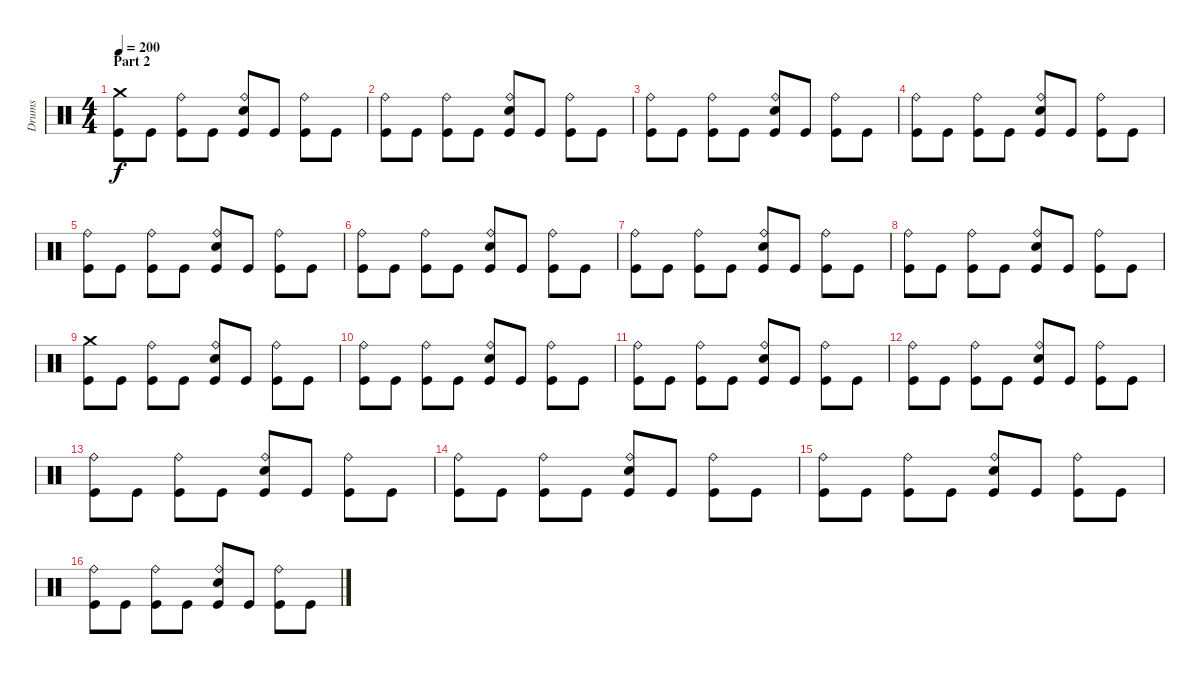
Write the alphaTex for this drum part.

\track ("Drums" "Drums") {instrument percussion}
\staff {score}
\articulation defaults
\ts (4 4)
\section ("" "Part 2")
\tempo 200
\clef neutral
\ks c
("Crash medium (hit)" "Kick (hit)").8{dy f} "Kick (hit)".8 ("Ride (bell)" "Kick (hit)").8 "Kick (hit)".8 ("Ride (bell)" "Electric Snare (hit)" "Kick (hit)").8 "Kick (hit)".8 ("Ride (bell)" "Kick (hit)").8 "Kick (hit)".8 |
("Ride (bell)" "Kick (hit)").8 "Kick (hit)".8 ("Ride (bell)" "Kick (hit)").8 "Kick (hit)".8 ("Ride (bell)" "Electric Snare (hit)" "Kick (hit)").8 "Kick (hit)".8 ("Ride (bell)" "Kick (hit)").8 "Kick (hit)".8 |
("Ride (bell)" "Kick (hit)").8 "Kick (hit)".8 ("Ride (bell)" "Kick (hit)").8 "Kick (hit)".8 ("Ride (bell)" "Electric Snare (hit)" "Kick (hit)").8 "Kick (hit)".8 ("Ride (bell)" "Kick (hit)").8 "Kick (hit)".8 |
("Ride (bell)" "Kick (hit)").8 "Kick (hit)".8 ("Ride (bell)" "Kick (hit)").8 "Kick (hit)".8 ("Ride (bell)" "Electric Snare (hit)" "Kick (hit)").8 "Kick (hit)".8 ("Ride (bell)" "Kick (hit)").8 "Kick (hit)".8 |
("Ride (bell)" "Kick (hit)").8 "Kick (hit)".8 ("Ride (bell)" "Kick (hit)").8 "Kick (hit)".8 ("Ride (bell)" "Electric Snare (hit)" "Kick (hit)").8 "Kick (hit)".8 ("Ride (bell)" "Kick (hit)").8 "Kick (hit)".8 |
("Ride (bell)" "Kick (hit)").8 "Kick (hit)".8 ("Ride (bell)" "Kick (hit)").8 "Kick (hit)".8 ("Ride (bell)" "Electric Snare (hit)" "Kick (hit)").8 "Kick (hit)".8 ("Ride (bell)" "Kick (hit)").8 "Kick (hit)".8 |
("Ride (bell)" "Kick (hit)").8 "Kick (hit)".8 ("Ride (bell)" "Kick (hit)").8 "Kick (hit)".8 ("Ride (bell)" "Electric Snare (hit)" "Kick (hit)").8 "Kick (hit)".8 ("Ride (bell)" "Kick (hit)").8 "Kick (hit)".8 |
("Ride (bell)" "Kick (hit)").8 "Kick (hit)".8 ("Ride (bell)" "Kick (hit)").8 "Kick (hit)".8 ("Ride (bell)" "Electric Snare (hit)" "Kick (hit)").8 "Kick (hit)".8 ("Ride (bell)" "Kick (hit)").8 "Kick (hit)".8 |
("Crash medium (hit)" "Kick (hit)").8 "Kick (hit)".8 ("Ride (bell)" "Kick (hit)").8 "Kick (hit)".8 ("Ride (bell)" "Electric Snare (hit)" "Kick (hit)").8 "Kick (hit)".8 ("Ride (bell)" "Kick (hit)").8 "Kick (hit)".8 |
("Ride (bell)" "Kick (hit)").8 "Kick (hit)".8 ("Ride (bell)" "Kick (hit)").8 "Kick (hit)".8 ("Ride (bell)" "Electric Snare (hit)" "Kick (hit)").8 "Kick (hit)".8 ("Ride (bell)" "Kick (hit)").8 "Kick (hit)".8 |
("Ride (bell)" "Kick (hit)").8 "Kick (hit)".8 ("Ride (bell)" "Kick (hit)").8 "Kick (hit)".8 ("Ride (bell)" "Electric Snare (hit)" "Kick (hit)").8 "Kick (hit)".8 ("Ride (bell)" "Kick (hit)").8 "Kick (hit)".8 |
("Ride (bell)" "Kick (hit)").8 "Kick (hit)".8 ("Ride (bell)" "Kick (hit)").8 "Kick (hit)".8 ("Ride (bell)" "Electric Snare (hit)" "Kick (hit)").8 "Kick (hit)".8 ("Ride (bell)" "Kick (hit)").8 "Kick (hit)".8 |
("Ride (bell)" "Kick (hit)").8 "Kick (hit)".8 ("Ride (bell)" "Kick (hit)").8 "Kick (hit)".8 ("Ride (bell)" "Electric Snare (hit)" "Kick (hit)").8 "Kick (hit)".8 ("Ride (bell)" "Kick (hit)").8 "Kick (hit)".8 |
("Ride (bell)" "Kick (hit)").8 "Kick (hit)".8 ("Ride (bell)" "Kick (hit)").8 "Kick (hit)".8 ("Ride (bell)" "Electric Snare (hit)" "Kick (hit)").8 "Kick (hit)".8 ("Ride (bell)" "Kick (hit)").8 "Kick (hit)".8 |
("Ride (bell)" "Kick (hit)").8 "Kick (hit)".8 ("Ride (bell)" "Kick (hit)").8 "Kick (hit)".8 ("Ride (bell)" "Electric Snare (hit)" "Kick (hit)").8 "Kick (hit)".8 ("Ride (bell)" "Kick (hit)").8 "Kick (hit)".8 |
("Ride (bell)" "Kick (hit)").8 "Kick (hit)".8 ("Ride (bell)" "Kick (hit)").8 "Kick (hit)".8 ("Ride (bell)" "Electric Snare (hit)" "Kick (hit)").8 "Kick (hit)".8 ("Ride (bell)" "Kick (hit)").8 "Kick (hit)".8
